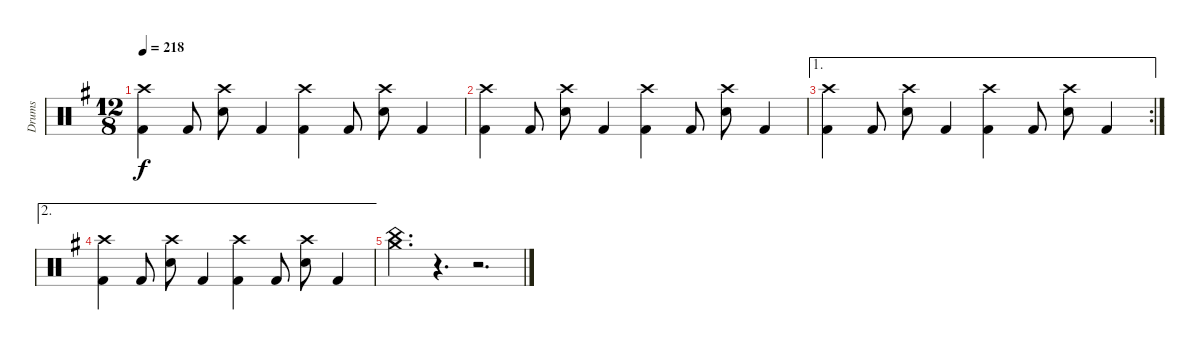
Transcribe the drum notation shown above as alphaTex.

\track ("Drums" "Drums") {solo instrument percussion}
\staff {score}
\articulation defaults
\ts (12 8)
\tempo 218
\clef neutral
\ks eminor
("Crash high (hit)" "Kick (hit) 2").4{dy f} "Kick (hit) 2".8 ("Crash high (hit)" "Electric Snare (hit)").8 "Kick (hit) 2".4 ("Crash high (hit)" "Kick (hit) 2").4 "Kick (hit) 2".8 ("Crash high (hit)" "Electric Snare (hit)").8 "Kick (hit) 2".4 |
("Crash high (hit)" "Kick (hit) 2").4 "Kick (hit) 2".8 ("Crash high (hit)" "Electric Snare (hit)").8 "Kick (hit) 2".4 ("Crash high (hit)" "Kick (hit) 2").4 "Kick (hit) 2".8 ("Crash high (hit)" "Electric Snare (hit)").8 "Kick (hit) 2".4 |
\ae 1
\rc 2
("Crash high (hit)" "Kick (hit) 2").4 "Kick (hit) 2".8 ("Crash high (hit)" "Electric Snare (hit)").8 "Kick (hit) 2".4 ("Crash high (hit)" "Kick (hit) 2").4 "Kick (hit) 2".8 ("Crash high (hit)" "Electric Snare (hit)").8 "Kick (hit) 2".4 |
\ae 2
("Crash high (hit)" "Kick (hit) 2").4 "Kick (hit) 2".8 ("Crash high (hit)" "Electric Snare (hit)").8 "Kick (hit) 2".4 ("Crash high (hit)" "Kick (hit) 2").4 "Kick (hit) 2".8 ("Crash high (hit)" "Electric Snare (hit)").8 "Kick (hit) 2".4 |
("Crash medium (hit)" "China (hit)").4{d} r.4{d} r.2{d}
